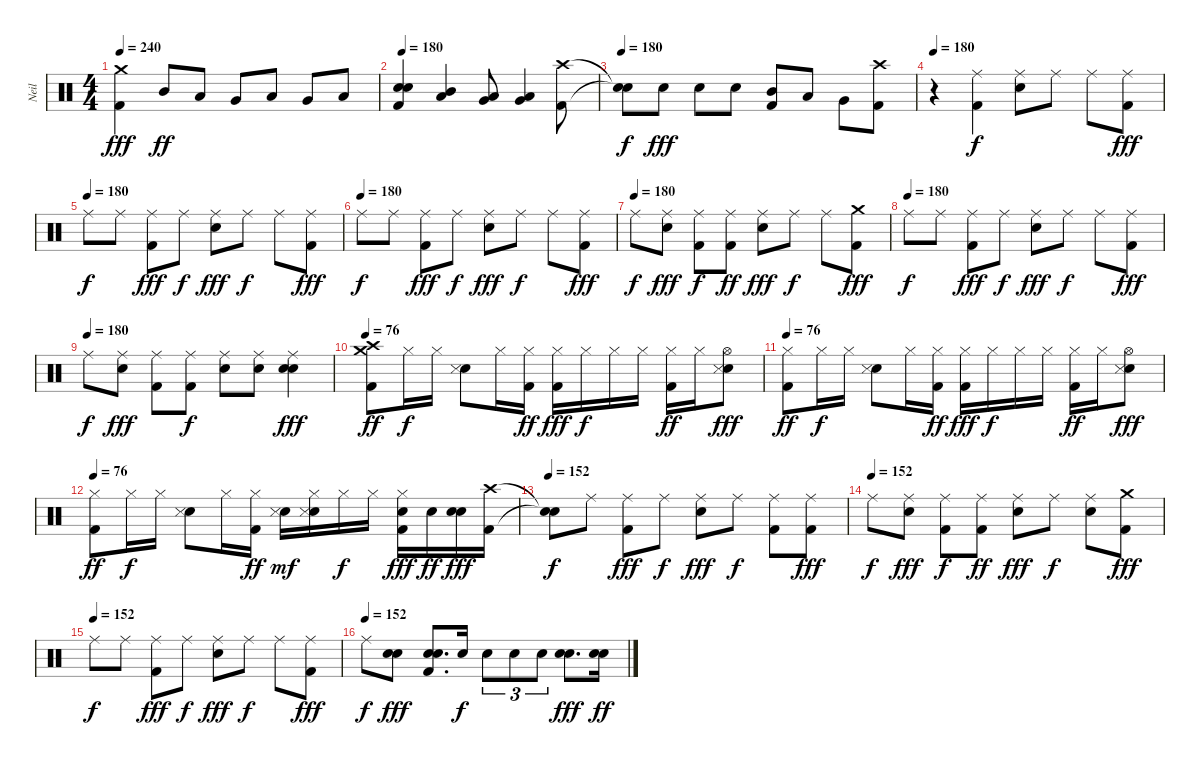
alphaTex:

\track ("Neil" "Neil") {instrument percussion}
\staff {score}
\articulation defaults
\ts (4 4)
\tempo 240
\clef neutral
\ks c
("Crash medium (hit)" "Kick (hit) 2").4{dy fff} "Mid Tom (hit)".8{dy ff} "Low Tom (hit)".8 "Very Low Tom (hit)".8 "Low Tom (hit)".8 "Very Low Tom (hit)".8 "Low Floor Tom (hit)".8 |
\tempo 180
("Snare (hit) 2" "Snare (hit) 2" "Kick (hit) 2").4 ("Low Tom (hit)" "Mid Tom (hit)").4 ("Very Low Tom (hit)" "Low Tom (hit)").8 ("Very Low Tom (hit)" "Low Tom (hit)").4 ("Crash high (hit)" "Kick (hit) 2").8 |
\tempo 180
("Snare (hit)"{t} "Snare (hit)"{t}).8{dy f} "Snare (hit) 2".8{dy fff} "Snare (hit) 2".8 "Snare (hit) 2".8 ("Kick (hit) 2" "Mid Tom (hit)").8 "Low Tom (hit)".8 "Very Low Tom (hit)".8 ("Kick (hit) 2" "Crash high (hit)").8 |
\tempo 180
r.4 ("Kick (hit) 2" "Ride (middle)").4{dy f} ("Ride (middle)" "Snare (hit) 2").8 "Ride (middle)".8 "Ride (middle)".8 ("Kick (hit) 2" "Ride (middle)").8{dy fff} |
\tempo (180)
"Ride (middle)".8{dy f} "Ride (middle)".8 ("Kick (hit) 2" "Ride (middle)").8{dy fff} "Ride (middle)".8{dy f} ("Snare (hit) 2" "Ride (middle)").8{dy fff} "Ride (middle)".8{dy f} "Ride (middle)".8 ("Kick (hit) 2" "Ride (middle)").8{dy fff} |
\tempo (180)
"Ride (middle)".8{dy f} "Ride (middle)".8 ("Kick (hit) 2" "Ride (middle)").8{dy fff} "Ride (middle)".8{dy f} ("Snare (hit) 2" "Ride (middle)").8{dy fff} "Ride (middle)".8{dy f} "Ride (middle)".8 ("Kick (hit) 2" "Ride (middle)").8{dy fff} |
\tempo (180)
"Ride (middle)".8{dy f} ("Snare (hit) 2" "Ride (middle)").8{dy fff} ("Kick (hit) 2" "Ride (middle)").8{dy f} ("Kick (hit) 2" "Ride (middle)").8{dy ff} ("Snare (hit) 2" "Ride (middle)").8{dy fff} "Ride (middle)".8{dy f} "Ride (middle)".8 ("Crash medium (hit)" "Kick (hit) 2").8{dy fff} |
\tempo (180)
"Ride (middle)".8{dy f} "Ride (middle)".8 ("Kick (hit) 2" "Ride (middle)").8{dy fff} "Ride (middle)".8{dy f} ("Snare (hit) 2" "Ride (middle)").8{dy fff} "Ride (middle)".8{dy f} "Ride (middle)".8 ("Kick (hit) 2" "Ride (middle)").8{dy fff} |
\tempo (180)
"Ride (middle)".8{dy f} ("Snare (hit) 2" "Ride (middle)").8{dy fff} ("Kick (hit) 2" "Ride (middle)").8 ("Kick (hit) 2" "Ride (middle)").8{dy f} ("Snare (hit) 2" "Ride (middle)").8 ("Snare (hit) 2" "Ride (middle)").8 ("Snare (hit) 2" "Snare (hit) 2" "Ride (middle)").4{dy fff} |
\tempo 76
("Crash medium (hit)" "Crash high (hit)" "Kick (hit) 2").8{dy ff} "Hi-Hat (closed)".16{dy f} "Hi-Hat (closed)".16 ("Electric Snare (hit)" "Snare (side stick) 3").8 "Hi-Hat (closed)".16 ("Kick (hit) 2" "Hi-Hat (closed)").16{dy ff} ("Kick (hit) 2" "Hi-Hat (closed)").16{dy fff} "Hi-Hat (closed)".16{dy f} "Hi-Hat (closed)".16 "Hi-Hat (closed)".16 ("Kick (hit) 2" "Hi-Hat (closed)").16{dy ff} "Hi-Hat (closed)".16 ("Electric Snare (hit)" "Hi-Hat (open)" "Snare (side stick) 3").8{dy fff} |
\tempo 76
("Hi-Hat (closed)" "Kick (hit) 2").8{dy ff} "Hi-Hat (closed)".16{dy f} "Hi-Hat (closed)".16 ("Electric Snare (hit)" "Snare (side stick) 3").8 "Hi-Hat (closed)".16 ("Kick (hit) 2" "Hi-Hat (closed)").16{dy ff} ("Kick (hit) 2" "Hi-Hat (closed)").16{dy fff} "Hi-Hat (closed)".16{dy f} "Hi-Hat (closed)".16 "Hi-Hat (closed)".16 ("Kick (hit) 2" "Hi-Hat (closed)").16{dy ff} "Hi-Hat (closed)".16 ("Electric Snare (hit)" "Hi-Hat (open)" "Snare (side stick) 3").8{dy fff} |
\tempo 76
("Hi-Hat (closed)" "Kick (hit) 2").8{dy ff} "Hi-Hat (closed)".16{dy f} "Hi-Hat (closed)".16 ("Electric Snare (hit)" "Snare (side stick) 3").8 "Hi-Hat (closed)".16 ("Kick (hit) 2" "Hi-Hat (closed)").16{dy ff} ("Electric Snare (hit)" "Snare (side stick) 3").16{dy mf} ("Electric Snare (hit)" "Hi-Hat (closed)" "Snare (side stick) 3").16 "Hi-Hat (closed)".16{dy f} "Hi-Hat (closed)".16 ("Hi-Hat (closed)" "Snare (hit) 2" "Kick (hit) 2").16{dy fff} "Snare (hit) 2".16{dy ff} ("Snare (hit) 2" "Snare (hit) 2").16{dy fff} ("Kick (hit) 2" "Crash high (hit)").16 |
\tempo 152
("Snare (hit)"{t} "Snare (hit)"{t}).8{dy f} "Ride (middle)".8 ("Kick (hit) 2" "Ride (middle)").8{dy fff} "Ride (middle)".8{dy f} ("Snare (hit) 2" "Ride (middle)").8{dy fff} "Ride (middle)".8{dy f} ("Kick (hit) 2" "Ride (middle)").8 ("Kick (hit) 2" "Ride (middle)").8{dy fff} |
\tempo (152)
"Ride (middle)".8{dy f} ("Snare (hit) 2" "Ride (middle)").8{dy fff} ("Kick (hit) 2" "Ride (middle)").8{dy f} ("Kick (hit) 2" "Ride (middle)").8{dy ff} ("Snare (hit) 2" "Ride (middle)").8{dy fff} "Ride (middle)".8{dy f} ("Snare (hit) 2" "Ride (middle)").8 ("Crash medium (hit)" "Kick (hit) 2").8{dy fff} |
\tempo (152)
"Ride (middle)".8{dy f} "Ride (middle)".8 ("Kick (hit) 2" "Ride (middle)").8{dy fff} "Ride (middle)".8{dy f} ("Snare (hit) 2" "Ride (middle)").8{dy fff} "Ride (middle)".8{dy f} "Ride (middle)".8 ("Kick (hit) 2" "Ride (middle)").8{dy fff} |
\tempo (152)
"Ride (middle)".8{dy f} ("Snare (hit) 2" "Snare (hit) 2").8{dy fff} ("Snare (hit) 2" "Snare (hit) 2" "Kick (hit) 2").8{d} "Snare (hit) 2".16{dy f} "Snare (hit) 2".8{tu (3 2)} "Snare (hit) 2".8{tu (3 2)} "Snare (hit) 2".8{tu (3 2)} ("Snare (hit) 2" "Snare (hit) 2").8{d dy fff} ("Snare (hit) 2" "Snare (hit) 2").16{dy ff}
